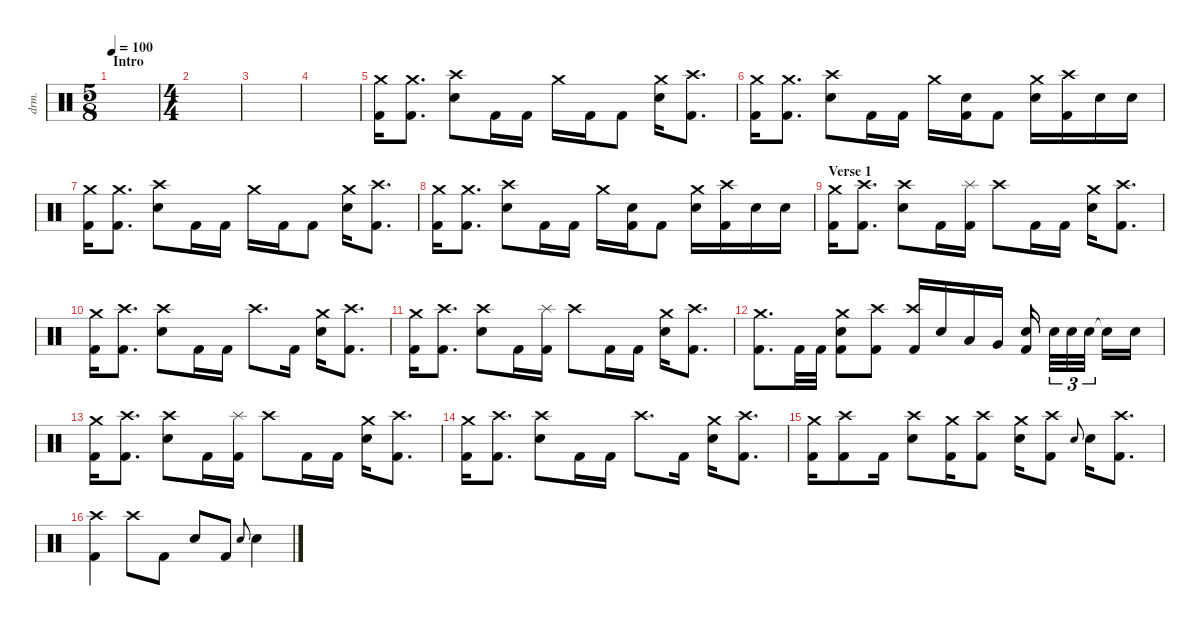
\defaultSystemsLayout 4
\hideDynamics
\bracketExtendMode nobrackets
\otherSystemsTrackNameOrientation horizontal
\track ("Jorge" "drm.") {instrument percussion}
\staff {score}
\articulation defaults
\ts (5 8)
\beaming (8 3 2)
\section ("" "Intro")
\tempo 100
\clef neutral
\ks c
|
\ts (4 4)
\beaming (8 2 2 2 2)
|
|
|
("Kick (hit) 2" "Crash medium (hit)").16{beam Down} ("Kick (hit) 2" "Crash medium (hit)").8{d beam Down} ("Snare (hit) 2" "Crash high (hit)").8{beam Down} "Kick (hit) 2".16{beam Down} "Kick (hit) 2".16{beam Down} "Crash medium (hit)".16{beam Down} "Kick (hit) 2".16{beam Down} "Kick (hit) 2".8{beam Down} ("Crash medium (hit)" "Snare (hit) 2").16{beam Down} ("Kick (hit) 2" "Crash high (hit)").8{d beam Down} |
("Kick (hit) 2" "Crash medium (hit)").16{beam Down} ("Kick (hit) 2" "Crash medium (hit)").8{d beam Down} ("Snare (hit) 2" "Crash high (hit)").8{beam Down} "Kick (hit) 2".16{beam Down} "Kick (hit) 2".16{beam Down} "Crash medium (hit)".16{beam Down} ("Kick (hit) 2" "Snare (hit) 2").16{beam Down} "Kick (hit) 2".8{beam Down} ("Crash medium (hit)" "Snare (hit) 2").16{beam Down} ("Kick (hit) 2" "Crash high (hit)").16{beam Down} "Snare (hit) 2".16{beam Down} "Snare (hit) 2".16{beam Down} |
("Kick (hit) 2" "Crash medium (hit)").16{beam Down} ("Kick (hit) 2" "Crash medium (hit)").8{d beam Down} ("Snare (hit) 2" "Crash high (hit)").8{beam Down} "Kick (hit) 2".16{beam Down} "Kick (hit) 2".16{beam Down} "Crash medium (hit)".16{beam Down} "Kick (hit) 2".16{beam Down} "Kick (hit) 2".8{beam Down} ("Crash medium (hit)" "Snare (hit) 2").16{beam Down} ("Kick (hit) 2" "Crash high (hit)").8{d beam Down} |
("Kick (hit) 2" "Crash medium (hit)").16{beam Down} ("Kick (hit) 2" "Crash medium (hit)").8{d beam Down} ("Snare (hit) 2" "Crash high (hit)").8{beam Down} "Kick (hit) 2".16{beam Down} "Kick (hit) 2".16{beam Down} "Crash medium (hit)".16{beam Down} ("Kick (hit) 2" "Snare (hit) 2").16{beam Down} "Kick (hit) 2".8{beam Down} ("Crash medium (hit)" "Snare (hit) 2").16{beam Down} ("Kick (hit) 2" "Crash high (hit)").16{beam Down} "Snare (hit) 2".16{beam Down} "Snare (hit) 2".16{beam Down} |
\section ("" "Verse 1")
("Kick (hit) 2" "Crash medium (hit)").16{beam Down} ("Kick (hit) 2" "Crash high (hit)").8{d beam Down} ("Snare (hit) 2" "Crash high (hit)").8{beam Down} "Kick (hit) 2".16{beam Down} ("Kick (hit) 2" "Splash (hit)").16{beam Down} "Crash high (hit)".8{beam Down} "Kick (hit) 2".16{beam Down} "Kick (hit) 2".16{beam Down} ("Crash medium (hit)" "Snare (hit) 2").16{beam Down} ("Kick (hit) 2" "Crash high (hit)").8{d beam Down} |
("Kick (hit) 2" "Crash medium (hit)").16{beam Down} ("Kick (hit) 2" "Crash high (hit)").8{d beam Down} ("Snare (hit) 2" "Crash high (hit)").8{beam Down} "Kick (hit) 2".16{beam Down} "Kick (hit) 2".16{beam Down} "Crash high (hit)".8{d beam Down} "Kick (hit) 2".16{beam Down} ("Crash medium (hit)" "Snare (hit) 2").16{beam Down} ("Kick (hit) 2" "Crash high (hit)").8{d beam Down} |
("Kick (hit) 2" "Crash medium (hit)").16{beam Down} ("Kick (hit) 2" "Crash high (hit)").8{d beam Down} ("Snare (hit) 2" "Crash high (hit)").8{beam Down} "Kick (hit) 2".16{beam Down} ("Kick (hit) 2" "Splash (hit)").16{beam Down} "Crash high (hit)".8{beam Down} "Kick (hit) 2".16{beam Down} "Kick (hit) 2".16{beam Down} ("Crash medium (hit)" "Snare (hit) 2").16{beam Down} ("Kick (hit) 2" "Crash high (hit)").8{d beam Down} |
("Kick (hit) 2" "Crash medium (hit)").8{d beam Down} "Kick (hit) 2".32{beam Down} "Kick (hit) 2".32{beam Down} ("Kick (hit) 2" "Snare (hit) 2" "Crash medium (hit)").8{beam Down} ("Crash high (hit)" "Kick (hit) 2").8{beam Down} ("Crash high (hit)" "Kick (hit) 2").16{beam Up} "Snare (hit) 2".16{beam Up} "Low Tom (hit)".16{beam Up} "Very Low Tom (hit)".16{beam Up} ("Snare (hit) 2" "Kick (hit) 2").16{beam Up} "Snare (hit) 2".32{tu (3 2) beam Down} "Snare (hit) 2".32{tu (3 2) beam Down} "Snare (hit) 2".32{tu (3 2) beam Down} "Snare (hit) 2"{t}.16{beam Down} "Snare (hit) 2".16{beam Down} |
("Kick (hit) 2" "Crash medium (hit)").16{beam Down} ("Kick (hit) 2" "Crash high (hit)").8{d beam Down} ("Snare (hit) 2" "Crash high (hit)").8{beam Down} "Kick (hit) 2".16{beam Down} ("Kick (hit) 2" "Splash (hit)").16{beam Down} "Crash high (hit)".8{beam Down} "Kick (hit) 2".16{beam Down} "Kick (hit) 2".16{beam Down} ("Crash medium (hit)" "Snare (hit) 2").16{beam Down} ("Kick (hit) 2" "Crash high (hit)").8{d beam Down} |
("Kick (hit) 2" "Crash medium (hit)").16{beam Down} ("Kick (hit) 2" "Crash high (hit)").8{d beam Down} ("Snare (hit) 2" "Crash high (hit)").8{beam Down} "Kick (hit) 2".16{beam Down} "Kick (hit) 2".16{beam Down} "Crash high (hit)".8{d beam Down} "Kick (hit) 2".16{beam Down} ("Crash medium (hit)" "Snare (hit) 2").16{beam Down} ("Kick (hit) 2" "Crash high (hit)").8{d beam Down} |
("Kick (hit) 2" "Crash medium (hit)").16{beam Down} ("Kick (hit) 2" "Crash high (hit)").8{beam Down} "Kick (hit) 2".16{beam Down} ("Snare (hit) 2" "Crash high (hit)").8{beam Down} ("Kick (hit) 2" "Crash medium (hit)").16{beam Down} ("Kick (hit) 2" "Crash high (hit)").8{beam Down} ("Snare (hit) 2" "Crash medium (hit)").16{beam Down} ("Kick (hit) 2" "Crash high (hit)").8{beam Down} "Snare (hit) 2".8{gr onbeat beam Up} "Snare (hit) 2".16{beam Down} ("Kick (hit) 2" "Crash high (hit)").8{d beam Down} |
("Kick (hit) 2" "Crash high (hit)").4{beam Down} "Crash high (hit)".8{beam Down} "Kick (hit) 2".8{beam Down} "Snare (hit) 2".8{beam Up} "Kick (hit) 2".8{beam Up} "Snare (hit) 2".8{gr onbeat beam Up} "Snare (hit) 2".4{beam Down}
